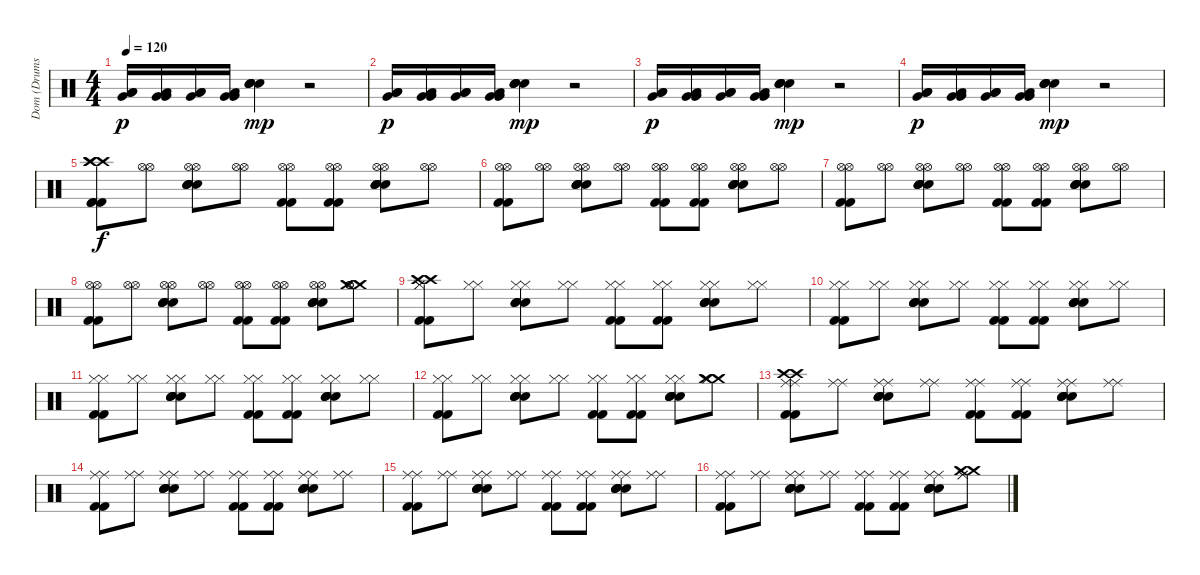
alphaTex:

\track ("Dom (Drums)" "Dom (Drums") {instrument percussion}
\staff {score}
\articulation defaults
\ts (4 4)
\tempo 120
\clef neutral
\ks c
("Very Low Tom (hit)" "Low Tom (hit)" "Low Tom (hit)").16{dy p} ("Low Tom (hit)" "Very Low Tom (hit)" "Very Low Tom (hit)").16 ("Very Low Tom (hit)" "Low Tom (hit)" "Low Tom (hit)").16 ("Low Tom (hit)" "Very Low Tom (hit)" "Very Low Tom (hit)").16 ("Electric Snare (hit)" "Electric Snare (hit)" "Snare (hit) 2" "Snare (hit) 2").4{dy mp} r.2 |
("Very Low Tom (hit)" "Low Tom (hit)" "Low Tom (hit)").16{dy p} ("Low Tom (hit)" "Very Low Tom (hit)" "Very Low Tom (hit)").16 ("Very Low Tom (hit)" "Low Tom (hit)" "Low Tom (hit)").16 ("Low Tom (hit)" "Very Low Tom (hit)" "Very Low Tom (hit)").16 ("Electric Snare (hit)" "Electric Snare (hit)" "Snare (hit) 2" "Snare (hit) 2").4{dy mp} r.2 |
("Very Low Tom (hit)" "Low Tom (hit)" "Low Tom (hit)").16{dy p} ("Low Tom (hit)" "Very Low Tom (hit)" "Very Low Tom (hit)").16 ("Very Low Tom (hit)" "Low Tom (hit)" "Low Tom (hit)").16 ("Low Tom (hit)" "Very Low Tom (hit)" "Very Low Tom (hit)").16 ("Electric Snare (hit)" "Electric Snare (hit)" "Snare (hit) 2" "Snare (hit) 2").4{dy mp} r.2 |
("Very Low Tom (hit)" "Low Tom (hit)" "Low Tom (hit)").16{dy p} ("Low Tom (hit)" "Very Low Tom (hit)" "Very Low Tom (hit)").16 ("Very Low Tom (hit)" "Low Tom (hit)" "Low Tom (hit)").16 ("Low Tom (hit)" "Very Low Tom (hit)" "Very Low Tom (hit)").16 ("Electric Snare (hit)" "Electric Snare (hit)" "Snare (hit) 2" "Snare (hit) 2").4{dy mp} r.2 |
("Crash high (hit)" "Crash high (hit)" "Crash high (hit)" "Kick (hit) 2" "Kick (hit) 2" "Kick (hit) 2").8{dy f} ("Hi-Hat (open)" "Hi-Hat (open)").8 ("Hi-Hat (open)" "Snare (hit) 2" "Snare (hit) 2" "Electric Snare (hit)" "Electric Snare (hit)" "Hi-Hat (open)").8 ("Hi-Hat (open)" "Hi-Hat (open)").8 ("Kick (hit) 2" "Kick (hit) 2" "Hi-Hat (open)" "Hi-Hat (open)").8 ("Kick (hit) 2" "Kick (hit) 2" "Hi-Hat (open)" "Hi-Hat (open)").8 ("Electric Snare (hit)" "Electric Snare (hit)" "Snare (hit) 2" "Snare (hit) 2" "Hi-Hat (open)" "Hi-Hat (open)").8 ("Hi-Hat (open)" "Hi-Hat (open)").8 |
("Kick (hit) 2" "Kick (hit) 2" "Hi-Hat (open)" "Hi-Hat (open)").8 ("Hi-Hat (open)" "Hi-Hat (open)").8 ("Snare (hit) 2" "Snare (hit) 2" "Electric Snare (hit)" "Electric Snare (hit)" "Hi-Hat (open)" "Hi-Hat (open)").8 ("Hi-Hat (open)" "Hi-Hat (open)").8 ("Kick (hit) 2" "Kick (hit) 2" "Hi-Hat (open)" "Hi-Hat (open)").8 ("Kick (hit) 2" "Kick (hit) 2" "Hi-Hat (open)" "Hi-Hat (open)").8 ("Electric Snare (hit)" "Electric Snare (hit)" "Snare (hit) 2" "Snare (hit) 2" "Hi-Hat (open)" "Hi-Hat (open)").8 ("Hi-Hat (open)" "Hi-Hat (open)").8 |
("Kick (hit) 2" "Kick (hit) 2" "Hi-Hat (open)" "Hi-Hat (open)").8 ("Hi-Hat (open)" "Hi-Hat (open)").8 ("Snare (hit) 2" "Snare (hit) 2" "Electric Snare (hit)" "Electric Snare (hit)" "Hi-Hat (open)" "Hi-Hat (open)").8 ("Hi-Hat (open)" "Hi-Hat (open)").8 ("Kick (hit) 2" "Kick (hit) 2" "Hi-Hat (open)" "Hi-Hat (open)").8 ("Kick (hit) 2" "Kick (hit) 2" "Hi-Hat (open)" "Hi-Hat (open)").8 ("Electric Snare (hit)" "Electric Snare (hit)" "Snare (hit) 2" "Snare (hit) 2" "Hi-Hat (open)" "Hi-Hat (open)").8 ("Hi-Hat (open)" "Hi-Hat (open)").8 |
("Kick (hit) 2" "Kick (hit) 2" "Hi-Hat (open)" "Hi-Hat (open)").8 ("Hi-Hat (open)" "Hi-Hat (open)").8 ("Snare (hit) 2" "Snare (hit) 2" "Electric Snare (hit)" "Electric Snare (hit)" "Hi-Hat (open)" "Hi-Hat (open)").8 ("Hi-Hat (open)" "Hi-Hat (open)").8 ("Kick (hit) 2" "Kick (hit) 2" "Hi-Hat (open)" "Hi-Hat (open)").8 ("Kick (hit) 2" "Kick (hit) 2" "Hi-Hat (open)" "Hi-Hat (open)").8 ("Electric Snare (hit)" "Electric Snare (hit)" "Snare (hit) 2" "Snare (hit) 2" "Hi-Hat (open)" "Hi-Hat (open)").8 ("Crash medium (hit)" "Crash medium (hit)" "Hi-Hat (open)" "Hi-Hat (open)").8 |
("Crash high (hit)" "Crash high (hit)" "Kick (hit) 2" "Kick (hit) 2" "Hi-Hat (closed)" "Hi-Hat (closed)").8 ("Hi-Hat (closed)" "Hi-Hat (closed)").8 ("Snare (hit) 2" "Snare (hit) 2" "Electric Snare (hit)" "Electric Snare (hit)" "Hi-Hat (closed)" "Hi-Hat (closed)").8 ("Hi-Hat (closed)" "Hi-Hat (closed)").8 ("Kick (hit) 2" "Kick (hit) 2" "Hi-Hat (closed)" "Hi-Hat (closed)").8 ("Kick (hit) 2" "Kick (hit) 2" "Hi-Hat (closed)" "Hi-Hat (closed)").8 ("Snare (hit) 2" "Snare (hit) 2" "Electric Snare (hit)" "Electric Snare (hit)" "Hi-Hat (closed)" "Hi-Hat (closed)").8 ("Hi-Hat (closed)" "Hi-Hat (closed)").8 |
("Kick (hit) 2" "Kick (hit) 2" "Hi-Hat (closed)" "Hi-Hat (closed)").8 ("Hi-Hat (closed)" "Hi-Hat (closed)").8 ("Snare (hit) 2" "Snare (hit) 2" "Electric Snare (hit)" "Electric Snare (hit)" "Hi-Hat (closed)" "Hi-Hat (closed)").8 ("Hi-Hat (closed)" "Hi-Hat (closed)").8 ("Kick (hit) 2" "Kick (hit) 2" "Hi-Hat (closed)" "Hi-Hat (closed)").8 ("Kick (hit) 2" "Kick (hit) 2" "Hi-Hat (closed)" "Hi-Hat (closed)").8 ("Snare (hit) 2" "Snare (hit) 2" "Electric Snare (hit)" "Electric Snare (hit)" "Hi-Hat (closed)" "Hi-Hat (closed)").8 ("Hi-Hat (closed)" "Hi-Hat (closed)").8 |
("Kick (hit) 2" "Kick (hit) 2" "Hi-Hat (closed)" "Hi-Hat (closed)").8 ("Hi-Hat (closed)" "Hi-Hat (closed)").8 ("Snare (hit) 2" "Snare (hit) 2" "Electric Snare (hit)" "Electric Snare (hit)" "Hi-Hat (closed)" "Hi-Hat (closed)").8 ("Hi-Hat (closed)" "Hi-Hat (closed)").8 ("Kick (hit) 2" "Kick (hit) 2" "Hi-Hat (closed)" "Hi-Hat (closed)").8 ("Kick (hit) 2" "Kick (hit) 2" "Hi-Hat (closed)" "Hi-Hat (closed)").8 ("Snare (hit) 2" "Snare (hit) 2" "Electric Snare (hit)" "Electric Snare (hit)" "Hi-Hat (closed)" "Hi-Hat (closed)").8 ("Hi-Hat (closed)" "Hi-Hat (closed)").8 |
("Kick (hit) 2" "Kick (hit) 2" "Hi-Hat (closed)" "Hi-Hat (closed)").8 ("Hi-Hat (closed)" "Hi-Hat (closed)").8 ("Snare (hit) 2" "Snare (hit) 2" "Electric Snare (hit)" "Electric Snare (hit)" "Hi-Hat (closed)" "Hi-Hat (closed)").8 ("Hi-Hat (closed)" "Hi-Hat (closed)").8 ("Kick (hit) 2" "Kick (hit) 2" "Hi-Hat (closed)" "Hi-Hat (closed)").8 ("Kick (hit) 2" "Kick (hit) 2" "Hi-Hat (closed)" "Hi-Hat (closed)").8 ("Snare (hit) 2" "Snare (hit) 2" "Electric Snare (hit)" "Electric Snare (hit)" "Hi-Hat (closed)" "Hi-Hat (closed)").8 ("Crash medium (hit)" "Crash medium (hit)" "Hi-Hat (closed)" "Hi-Hat (closed)").8 |
("Crash high (hit)" "Kick (hit) 2" "Kick (hit) 2" "Crash high (hit)" "Ride (middle)" "Ride (middle)").8 ("Ride (middle)" "Ride (middle)").8 ("Snare (hit) 2" "Snare (hit) 2" "Electric Snare (hit)" "Electric Snare (hit)" "Ride (middle)" "Ride (middle)").8 ("Ride (middle)" "Ride (middle)").8 ("Kick (hit) 2" "Kick (hit) 2" "Ride (middle)" "Ride (middle)").8 ("Kick (hit) 2" "Kick (hit) 2" "Ride (middle)" "Ride (middle)").8 ("Snare (hit) 2" "Snare (hit) 2" "Electric Snare (hit)" "Electric Snare (hit)" "Ride (middle)" "Ride (middle)").8 ("Ride (middle)" "Ride (middle)").8 |
("Kick (hit) 2" "Kick (hit) 2" "Ride (middle)" "Ride (middle)").8 ("Ride (middle)" "Ride (middle)").8 ("Snare (hit) 2" "Snare (hit) 2" "Electric Snare (hit)" "Electric Snare (hit)" "Ride (middle)" "Ride (middle)").8 ("Ride (middle)" "Ride (middle)").8 ("Kick (hit) 2" "Kick (hit) 2" "Ride (middle)" "Ride (middle)").8 ("Kick (hit) 2" "Kick (hit) 2" "Ride (middle)" "Ride (middle)").8 ("Snare (hit) 2" "Snare (hit) 2" "Electric Snare (hit)" "Electric Snare (hit)" "Ride (middle)" "Ride (middle)").8 ("Ride (middle)" "Ride (middle)").8 |
("Kick (hit) 2" "Kick (hit) 2" "Ride (middle)" "Ride (middle)").8 ("Ride (middle)" "Ride (middle)").8 ("Snare (hit) 2" "Snare (hit) 2" "Electric Snare (hit)" "Electric Snare (hit)" "Ride (middle)" "Ride (middle)").8 ("Ride (middle)" "Ride (middle)").8 ("Kick (hit) 2" "Kick (hit) 2" "Ride (middle)" "Ride (middle)").8 ("Kick (hit) 2" "Kick (hit) 2" "Ride (middle)" "Ride (middle)").8 ("Snare (hit) 2" "Snare (hit) 2" "Electric Snare (hit)" "Electric Snare (hit)" "Ride (middle)" "Ride (middle)").8 ("Ride (middle)" "Ride (middle)").8 |
("Kick (hit) 2" "Kick (hit) 2" "Ride (middle)" "Ride (middle)").8 ("Ride (middle)" "Ride (middle)").8 ("Snare (hit) 2" "Snare (hit) 2" "Electric Snare (hit)" "Electric Snare (hit)" "Ride (middle)" "Ride (middle)").8 ("Ride (middle)" "Ride (middle)").8 ("Kick (hit) 2" "Kick (hit) 2" "Ride (middle)" "Ride (middle)").8 ("Kick (hit) 2" "Kick (hit) 2" "Ride (middle)" "Ride (middle)").8 ("Snare (hit) 2" "Snare (hit) 2" "Electric Snare (hit)" "Electric Snare (hit)" "Ride (middle)" "Ride (middle)").8 ("Crash medium (hit)" "Crash medium (hit)" "Ride (middle)" "Ride (middle)").8
